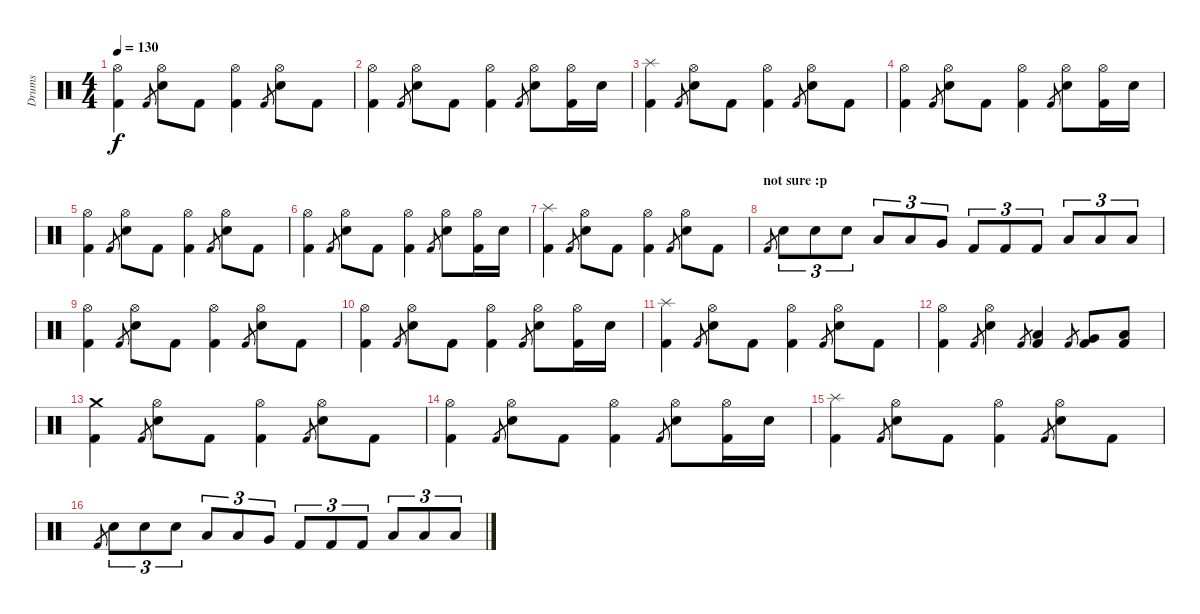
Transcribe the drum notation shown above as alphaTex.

\track ("Drums" "Drums") {instrument percussion}
\staff {score}
\articulation defaults
\ts (4 4)
\tempo 130
\clef neutral
\ks c
("Hi-Hat (open)" "Kick (hit) 2").4{dy f} "Kick (hit) 2".8{gr} ("Hi-Hat (open)" "Electric Snare (hit)").8 "Kick (hit) 2".8 ("Hi-Hat (open)" "Kick (hit) 2").4 "Kick (hit) 2".8{gr} ("Hi-Hat (open)" "Electric Snare (hit)").8 "Kick (hit) 2".8 |
("Hi-Hat (open)" "Kick (hit) 2").4 "Kick (hit) 2".8{gr} ("Hi-Hat (open)" "Electric Snare (hit)").8 "Kick (hit) 2".8 ("Hi-Hat (open)" "Kick (hit) 2").4 "Kick (hit) 2".8{gr} ("Hi-Hat (open)" "Electric Snare (hit)").8 ("Hi-Hat (open)" "Kick (hit) 2").16 "Electric Snare (hit)".16 |
("Splash (hit)" "Kick (hit) 2").4 "Kick (hit) 2".8{gr} ("Hi-Hat (open)" "Electric Snare (hit)").8 "Kick (hit) 2".8 ("Hi-Hat (open)" "Kick (hit) 2").4 "Kick (hit) 2".8{gr} ("Hi-Hat (open)" "Electric Snare (hit)").8 "Kick (hit) 2".8 |
("Hi-Hat (open)" "Kick (hit) 2").4 "Kick (hit) 2".8{gr} ("Hi-Hat (open)" "Electric Snare (hit)").8 "Kick (hit) 2".8 ("Hi-Hat (open)" "Kick (hit) 2").4 "Kick (hit) 2".8{gr} ("Hi-Hat (open)" "Electric Snare (hit)").8 ("Hi-Hat (open)" "Kick (hit) 2").16 "Electric Snare (hit)".16 |
("Hi-Hat (open)" "Kick (hit) 2").4 "Kick (hit) 2".8{gr} ("Hi-Hat (open)" "Electric Snare (hit)").8 "Kick (hit) 2".8 ("Hi-Hat (open)" "Kick (hit) 2").4 "Kick (hit) 2".8{gr} ("Hi-Hat (open)" "Electric Snare (hit)").8 "Kick (hit) 2".8 |
("Hi-Hat (open)" "Kick (hit) 2").4 "Kick (hit) 2".8{gr} ("Hi-Hat (open)" "Electric Snare (hit)").8 "Kick (hit) 2".8 ("Hi-Hat (open)" "Kick (hit) 2").4 "Kick (hit) 2".8{gr} ("Hi-Hat (open)" "Electric Snare (hit)").8 ("Hi-Hat (open)" "Kick (hit) 2").16 "Electric Snare (hit)".16 |
("Splash (hit)" "Kick (hit) 2").4 "Kick (hit) 2".8{gr} ("Hi-Hat (open)" "Electric Snare (hit)").8 "Kick (hit) 2".8 ("Hi-Hat (open)" "Kick (hit) 2").4 "Kick (hit) 2".8{gr} ("Hi-Hat (open)" "Electric Snare (hit)").8 "Kick (hit) 2".8 |
\section ("" "not sure :p")
"Kick (hit) 2".8{gr} "Electric Snare (hit)".8{tu (3 2)} "Electric Snare (hit)".8{tu (3 2)} "Electric Snare (hit)".8{tu (3 2)} "Low Tom (hit)".8{tu (3 2)} "Low Tom (hit)".8{tu (3 2)} "Very Low Tom (hit)".8{tu (3 2)} "Kick (hit) 2".8{tu (3 2)} "Kick (hit) 2".8{tu (3 2)} "Kick (hit) 2".8{tu (3 2)} "Low Floor Tom (hit)".8{tu (3 2)} "Low Floor Tom (hit)".8{tu (3 2)} "Low Floor Tom (hit)".8{tu (3 2)} |
("Hi-Hat (open)" "Kick (hit) 2").4 "Kick (hit) 2".8{gr} ("Hi-Hat (open)" "Electric Snare (hit)").8 "Kick (hit) 2".8 ("Hi-Hat (open)" "Kick (hit) 2").4 "Kick (hit) 2".8{gr} ("Hi-Hat (open)" "Electric Snare (hit)").8 "Kick (hit) 2".8 |
("Hi-Hat (open)" "Kick (hit) 2").4 "Kick (hit) 2".8{gr} ("Hi-Hat (open)" "Electric Snare (hit)").8 "Kick (hit) 2".8 ("Hi-Hat (open)" "Kick (hit) 2").4 "Kick (hit) 2".8{gr} ("Hi-Hat (open)" "Electric Snare (hit)").8 ("Hi-Hat (open)" "Kick (hit) 2").16 "Electric Snare (hit)".16 |
("Splash (hit)" "Kick (hit) 2").4 "Kick (hit) 2".8{gr} ("Hi-Hat (open)" "Electric Snare (hit)").8 "Kick (hit) 2".8 ("Hi-Hat (open)" "Kick (hit) 2").4 "Kick (hit) 2".8{gr} ("Hi-Hat (open)" "Electric Snare (hit)").8 "Kick (hit) 2".8 |
("Hi-Hat (open)" "Kick (hit) 2").4 "Kick (hit) 2".8{gr} ("Hi-Hat (open)" "Electric Snare (hit)").4 "Kick (hit) 2".8{gr} ("Low Tom (hit)" "Kick (hit) 2").4 "Kick (hit) 2".8{gr} ("Very Low Tom (hit)" "Kick (hit) 2").8 ("Low Floor Tom (hit)" "Kick (hit) 2").8 |
("Crash medium (hit)" "Kick (hit) 2").4 "Kick (hit) 2".8{gr} ("Hi-Hat (open)" "Electric Snare (hit)").8 "Kick (hit) 2".8 ("Hi-Hat (open)" "Kick (hit) 2").4 "Kick (hit) 2".8{gr} ("Hi-Hat (open)" "Electric Snare (hit)").8 "Kick (hit) 2".8 |
("Hi-Hat (open)" "Kick (hit) 2").4 "Kick (hit) 2".8{gr} ("Hi-Hat (open)" "Electric Snare (hit)").8 "Kick (hit) 2".8 ("Hi-Hat (open)" "Kick (hit) 2").4 "Kick (hit) 2".8{gr} ("Hi-Hat (open)" "Electric Snare (hit)").8 ("Hi-Hat (open)" "Kick (hit) 2").16 "Electric Snare (hit)".16 |
("Splash (hit)" "Kick (hit) 2").4 "Kick (hit) 2".8{gr} ("Hi-Hat (open)" "Electric Snare (hit)").8 "Kick (hit) 2".8 ("Hi-Hat (open)" "Kick (hit) 2").4 "Kick (hit) 2".8{gr} ("Hi-Hat (open)" "Electric Snare (hit)").8 "Kick (hit) 2".8 |
"Kick (hit) 2".8{gr} "Electric Snare (hit)".8{tu (3 2)} "Electric Snare (hit)".8{tu (3 2)} "Electric Snare (hit)".8{tu (3 2)} "Low Tom (hit)".8{tu (3 2)} "Low Tom (hit)".8{tu (3 2)} "Very Low Tom (hit)".8{tu (3 2)} "Kick (hit) 2".8{tu (3 2)} "Kick (hit) 2".8{tu (3 2)} "Kick (hit) 2".8{tu (3 2)} "Low Floor Tom (hit)".8{tu (3 2)} "Low Floor Tom (hit)".8{tu (3 2)} "Low Floor Tom (hit)".8{tu (3 2)}
